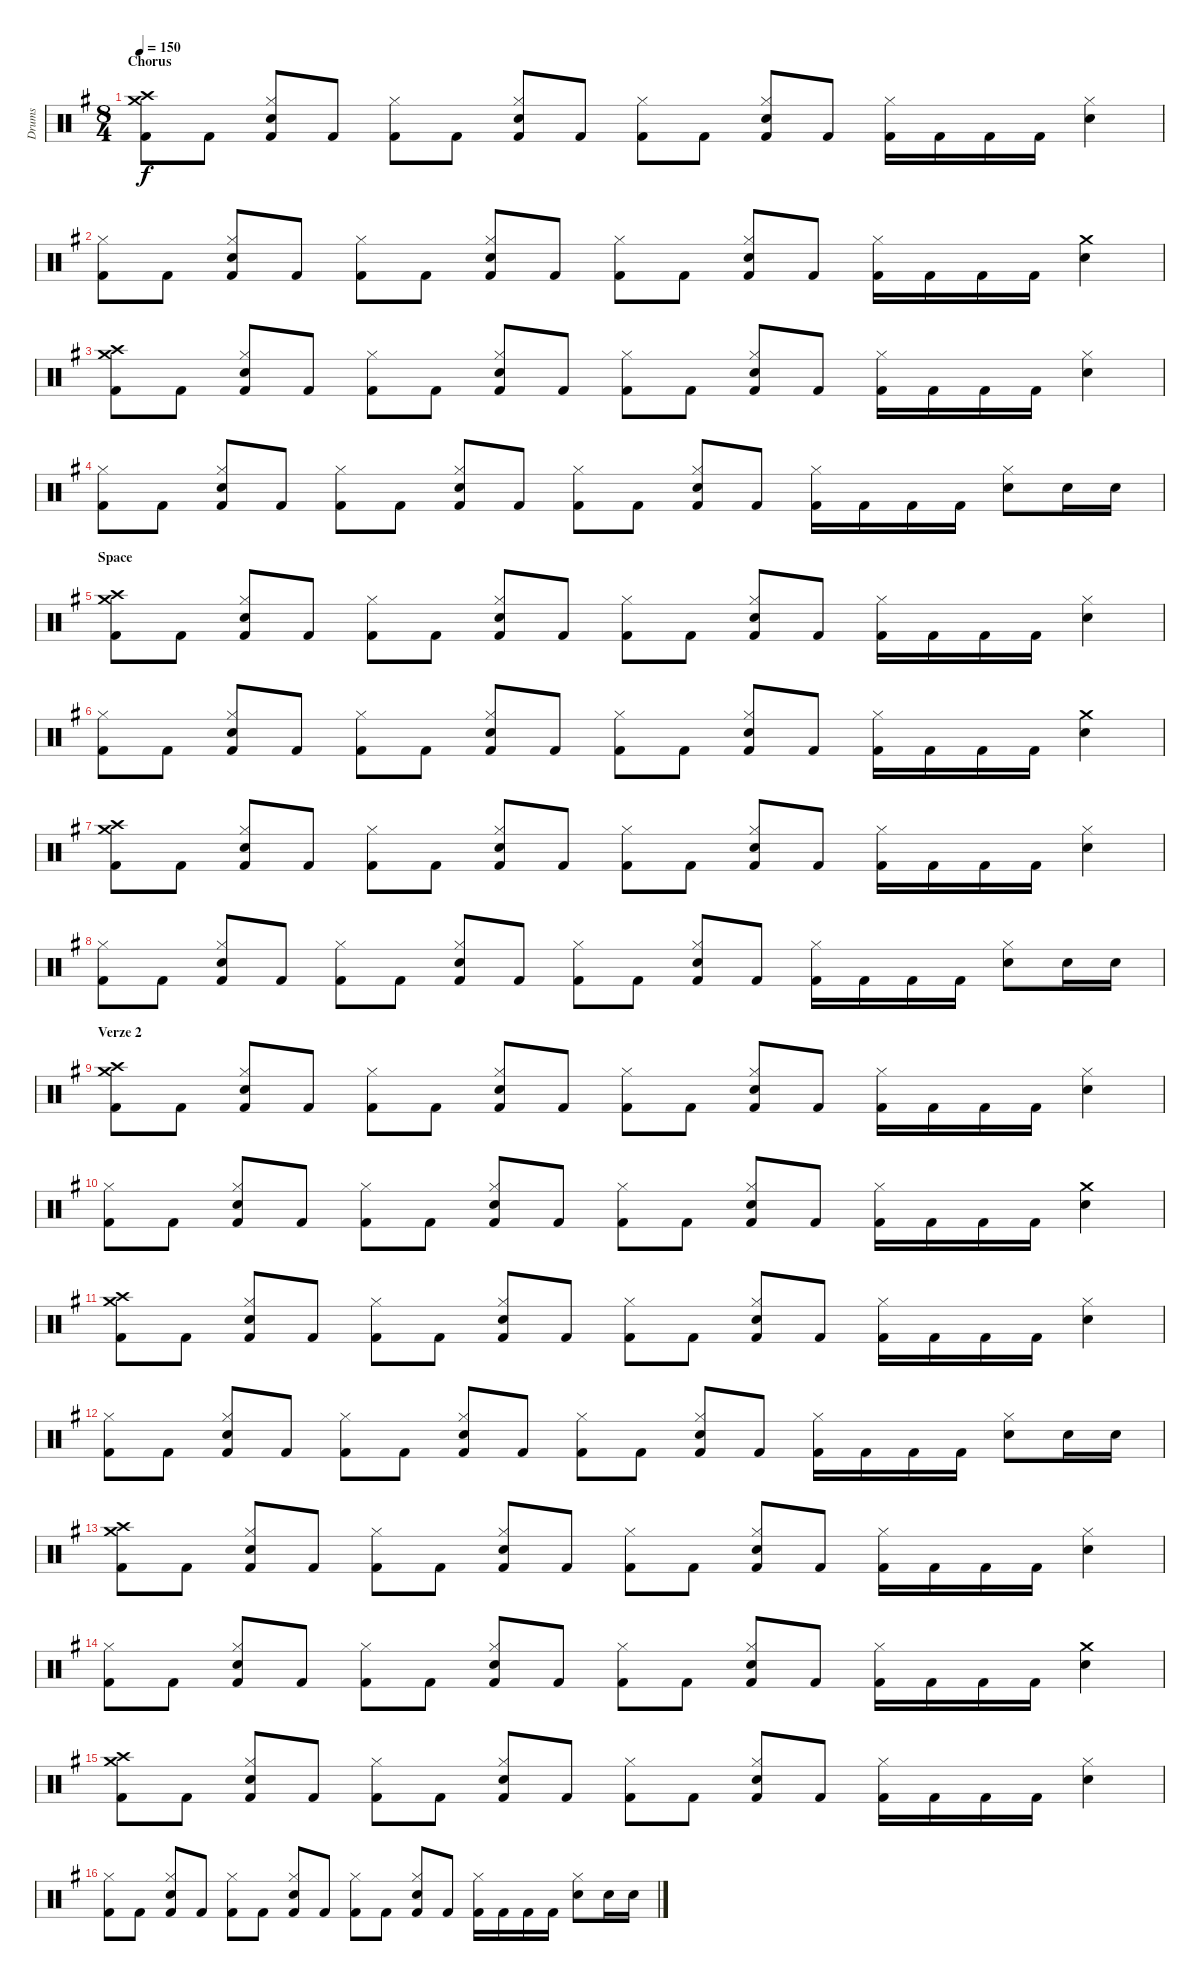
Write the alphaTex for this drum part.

\track ("Drums" "Drums") {instrument percussion}
\staff {score}
\articulation defaults
\ts (8 4)
\section ("" "Chorus")
\tempo 150
\clef neutral
\ks g
("Crash medium (hit)" "Crash high (hit)" "Kick (hit) 2").8{dy f} "Kick (hit) 2".8 ("Hi-Hat (closed)" "Snare (hit) 2" "Kick (hit) 2").8 "Kick (hit) 2".8 ("Hi-Hat (closed)" "Kick (hit) 2").8 "Kick (hit) 2".8 ("Hi-Hat (closed)" "Snare (hit) 2" "Kick (hit) 2").8 "Kick (hit) 2".8 ("Hi-Hat (closed)" "Kick (hit) 2").8 "Kick (hit) 2".8 ("Hi-Hat (closed)" "Snare (hit) 2" "Kick (hit) 2").8 "Kick (hit) 2".8 ("Hi-Hat (closed)" "Kick (hit) 2").16 "Kick (hit) 2".16 "Kick (hit) 2".16 "Kick (hit) 2".16 ("Hi-Hat (closed)" "Snare (hit) 2").4 |
("Hi-Hat (closed)" "Kick (hit) 2").8 "Kick (hit) 2".8 ("Hi-Hat (closed)" "Snare (hit) 2" "Kick (hit) 2").8 "Kick (hit) 2".8 ("Hi-Hat (closed)" "Kick (hit) 2").8 "Kick (hit) 2".8 ("Hi-Hat (closed)" "Snare (hit) 2" "Kick (hit) 2").8 "Kick (hit) 2".8 ("Hi-Hat (closed)" "Kick (hit) 2").8 "Kick (hit) 2".8 ("Hi-Hat (closed)" "Snare (hit) 2" "Kick (hit) 2").8 "Kick (hit) 2".8 ("Hi-Hat (closed)" "Kick (hit) 2").16 "Kick (hit) 2".16 "Kick (hit) 2".16 "Kick (hit) 2".16 ("Crash medium (hit)" "Snare (hit) 2").4 |
("Crash medium (hit)" "Crash high (hit)" "Kick (hit) 2").8 "Kick (hit) 2".8 ("Hi-Hat (closed)" "Snare (hit) 2" "Kick (hit) 2").8 "Kick (hit) 2".8 ("Hi-Hat (closed)" "Kick (hit) 2").8 "Kick (hit) 2".8 ("Hi-Hat (closed)" "Snare (hit) 2" "Kick (hit) 2").8 "Kick (hit) 2".8 ("Hi-Hat (closed)" "Kick (hit) 2").8 "Kick (hit) 2".8 ("Hi-Hat (closed)" "Snare (hit) 2" "Kick (hit) 2").8 "Kick (hit) 2".8 ("Hi-Hat (closed)" "Kick (hit) 2").16 "Kick (hit) 2".16 "Kick (hit) 2".16 "Kick (hit) 2".16 ("Hi-Hat (closed)" "Snare (hit) 2").4 |
("Hi-Hat (closed)" "Kick (hit) 2").8 "Kick (hit) 2".8 ("Hi-Hat (closed)" "Snare (hit) 2" "Kick (hit) 2").8 "Kick (hit) 2".8 ("Hi-Hat (closed)" "Kick (hit) 2").8 "Kick (hit) 2".8 ("Hi-Hat (closed)" "Snare (hit) 2" "Kick (hit) 2").8 "Kick (hit) 2".8 ("Hi-Hat (closed)" "Kick (hit) 2").8 "Kick (hit) 2".8 ("Hi-Hat (closed)" "Snare (hit) 2" "Kick (hit) 2").8 "Kick (hit) 2".8 ("Hi-Hat (closed)" "Kick (hit) 2").16 "Kick (hit) 2".16 "Kick (hit) 2".16 "Kick (hit) 2".16 ("Hi-Hat (closed)" "Snare (hit) 2").8 "Snare (hit) 2".16 "Snare (hit) 2".16 |
\section ("" "Space")
("Crash medium (hit)" "Crash high (hit)" "Kick (hit) 2").8 "Kick (hit) 2".8 ("Hi-Hat (closed)" "Snare (hit) 2" "Kick (hit) 2").8 "Kick (hit) 2".8 ("Hi-Hat (closed)" "Kick (hit) 2").8 "Kick (hit) 2".8 ("Hi-Hat (closed)" "Snare (hit) 2" "Kick (hit) 2").8 "Kick (hit) 2".8 ("Hi-Hat (closed)" "Kick (hit) 2").8 "Kick (hit) 2".8 ("Hi-Hat (closed)" "Snare (hit) 2" "Kick (hit) 2").8 "Kick (hit) 2".8 ("Hi-Hat (closed)" "Kick (hit) 2").16 "Kick (hit) 2".16 "Kick (hit) 2".16 "Kick (hit) 2".16 ("Hi-Hat (closed)" "Snare (hit) 2").4 |
("Hi-Hat (closed)" "Kick (hit) 2").8 "Kick (hit) 2".8 ("Hi-Hat (closed)" "Snare (hit) 2" "Kick (hit) 2").8 "Kick (hit) 2".8 ("Hi-Hat (closed)" "Kick (hit) 2").8 "Kick (hit) 2".8 ("Hi-Hat (closed)" "Snare (hit) 2" "Kick (hit) 2").8 "Kick (hit) 2".8 ("Hi-Hat (closed)" "Kick (hit) 2").8 "Kick (hit) 2".8 ("Hi-Hat (closed)" "Snare (hit) 2" "Kick (hit) 2").8 "Kick (hit) 2".8 ("Hi-Hat (closed)" "Kick (hit) 2").16 "Kick (hit) 2".16 "Kick (hit) 2".16 "Kick (hit) 2".16 ("Crash medium (hit)" "Snare (hit) 2").4 |
("Crash medium (hit)" "Crash high (hit)" "Kick (hit) 2").8 "Kick (hit) 2".8 ("Hi-Hat (closed)" "Snare (hit) 2" "Kick (hit) 2").8 "Kick (hit) 2".8 ("Hi-Hat (closed)" "Kick (hit) 2").8 "Kick (hit) 2".8 ("Hi-Hat (closed)" "Snare (hit) 2" "Kick (hit) 2").8 "Kick (hit) 2".8 ("Hi-Hat (closed)" "Kick (hit) 2").8 "Kick (hit) 2".8 ("Hi-Hat (closed)" "Snare (hit) 2" "Kick (hit) 2").8 "Kick (hit) 2".8 ("Hi-Hat (closed)" "Kick (hit) 2").16 "Kick (hit) 2".16 "Kick (hit) 2".16 "Kick (hit) 2".16 ("Hi-Hat (closed)" "Snare (hit) 2").4 |
("Hi-Hat (closed)" "Kick (hit) 2").8 "Kick (hit) 2".8 ("Hi-Hat (closed)" "Snare (hit) 2" "Kick (hit) 2").8 "Kick (hit) 2".8 ("Hi-Hat (closed)" "Kick (hit) 2").8 "Kick (hit) 2".8 ("Hi-Hat (closed)" "Snare (hit) 2" "Kick (hit) 2").8 "Kick (hit) 2".8 ("Hi-Hat (closed)" "Kick (hit) 2").8 "Kick (hit) 2".8 ("Hi-Hat (closed)" "Snare (hit) 2" "Kick (hit) 2").8 "Kick (hit) 2".8 ("Hi-Hat (closed)" "Kick (hit) 2").16 "Kick (hit) 2".16 "Kick (hit) 2".16 "Kick (hit) 2".16 ("Hi-Hat (closed)" "Snare (hit) 2").8 "Snare (hit) 2".16 "Snare (hit) 2".16 |
\section ("" "Verze 2")
("Crash medium (hit)" "Crash high (hit)" "Kick (hit) 2").8 "Kick (hit) 2".8 ("Hi-Hat (closed)" "Snare (hit) 2" "Kick (hit) 2").8 "Kick (hit) 2".8 ("Hi-Hat (closed)" "Kick (hit) 2").8 "Kick (hit) 2".8 ("Hi-Hat (closed)" "Snare (hit) 2" "Kick (hit) 2").8 "Kick (hit) 2".8 ("Hi-Hat (closed)" "Kick (hit) 2").8 "Kick (hit) 2".8 ("Hi-Hat (closed)" "Snare (hit) 2" "Kick (hit) 2").8 "Kick (hit) 2".8 ("Hi-Hat (closed)" "Kick (hit) 2").16 "Kick (hit) 2".16 "Kick (hit) 2".16 "Kick (hit) 2".16 ("Hi-Hat (closed)" "Snare (hit) 2").4 |
("Hi-Hat (closed)" "Kick (hit) 2").8 "Kick (hit) 2".8 ("Hi-Hat (closed)" "Snare (hit) 2" "Kick (hit) 2").8 "Kick (hit) 2".8 ("Hi-Hat (closed)" "Kick (hit) 2").8 "Kick (hit) 2".8 ("Hi-Hat (closed)" "Snare (hit) 2" "Kick (hit) 2").8 "Kick (hit) 2".8 ("Hi-Hat (closed)" "Kick (hit) 2").8 "Kick (hit) 2".8 ("Hi-Hat (closed)" "Snare (hit) 2" "Kick (hit) 2").8 "Kick (hit) 2".8 ("Hi-Hat (closed)" "Kick (hit) 2").16 "Kick (hit) 2".16 "Kick (hit) 2".16 "Kick (hit) 2".16 ("Crash medium (hit)" "Snare (hit) 2").4 |
("Crash medium (hit)" "Crash high (hit)" "Kick (hit) 2").8 "Kick (hit) 2".8 ("Hi-Hat (closed)" "Snare (hit) 2" "Kick (hit) 2").8 "Kick (hit) 2".8 ("Hi-Hat (closed)" "Kick (hit) 2").8 "Kick (hit) 2".8 ("Hi-Hat (closed)" "Snare (hit) 2" "Kick (hit) 2").8 "Kick (hit) 2".8 ("Hi-Hat (closed)" "Kick (hit) 2").8 "Kick (hit) 2".8 ("Hi-Hat (closed)" "Snare (hit) 2" "Kick (hit) 2").8 "Kick (hit) 2".8 ("Hi-Hat (closed)" "Kick (hit) 2").16 "Kick (hit) 2".16 "Kick (hit) 2".16 "Kick (hit) 2".16 ("Hi-Hat (closed)" "Snare (hit) 2").4 |
("Hi-Hat (closed)" "Kick (hit) 2").8 "Kick (hit) 2".8 ("Hi-Hat (closed)" "Snare (hit) 2" "Kick (hit) 2").8 "Kick (hit) 2".8 ("Hi-Hat (closed)" "Kick (hit) 2").8 "Kick (hit) 2".8 ("Hi-Hat (closed)" "Snare (hit) 2" "Kick (hit) 2").8 "Kick (hit) 2".8 ("Hi-Hat (closed)" "Kick (hit) 2").8 "Kick (hit) 2".8 ("Hi-Hat (closed)" "Snare (hit) 2" "Kick (hit) 2").8 "Kick (hit) 2".8 ("Hi-Hat (closed)" "Kick (hit) 2").16 "Kick (hit) 2".16 "Kick (hit) 2".16 "Kick (hit) 2".16 ("Hi-Hat (closed)" "Snare (hit) 2").8 "Snare (hit) 2".16 "Snare (hit) 2".16 |
("Crash medium (hit)" "Crash high (hit)" "Kick (hit) 2").8 "Kick (hit) 2".8 ("Hi-Hat (closed)" "Snare (hit) 2" "Kick (hit) 2").8 "Kick (hit) 2".8 ("Hi-Hat (closed)" "Kick (hit) 2").8 "Kick (hit) 2".8 ("Hi-Hat (closed)" "Snare (hit) 2" "Kick (hit) 2").8 "Kick (hit) 2".8 ("Hi-Hat (closed)" "Kick (hit) 2").8 "Kick (hit) 2".8 ("Hi-Hat (closed)" "Snare (hit) 2" "Kick (hit) 2").8 "Kick (hit) 2".8 ("Hi-Hat (closed)" "Kick (hit) 2").16 "Kick (hit) 2".16 "Kick (hit) 2".16 "Kick (hit) 2".16 ("Hi-Hat (closed)" "Snare (hit) 2").4 |
("Hi-Hat (closed)" "Kick (hit) 2").8 "Kick (hit) 2".8 ("Hi-Hat (closed)" "Snare (hit) 2" "Kick (hit) 2").8 "Kick (hit) 2".8 ("Hi-Hat (closed)" "Kick (hit) 2").8 "Kick (hit) 2".8 ("Hi-Hat (closed)" "Snare (hit) 2" "Kick (hit) 2").8 "Kick (hit) 2".8 ("Hi-Hat (closed)" "Kick (hit) 2").8 "Kick (hit) 2".8 ("Hi-Hat (closed)" "Snare (hit) 2" "Kick (hit) 2").8 "Kick (hit) 2".8 ("Hi-Hat (closed)" "Kick (hit) 2").16 "Kick (hit) 2".16 "Kick (hit) 2".16 "Kick (hit) 2".16 ("Crash medium (hit)" "Snare (hit) 2").4 |
("Crash medium (hit)" "Crash high (hit)" "Kick (hit) 2").8 "Kick (hit) 2".8 ("Hi-Hat (closed)" "Snare (hit) 2" "Kick (hit) 2").8 "Kick (hit) 2".8 ("Hi-Hat (closed)" "Kick (hit) 2").8 "Kick (hit) 2".8 ("Hi-Hat (closed)" "Snare (hit) 2" "Kick (hit) 2").8 "Kick (hit) 2".8 ("Hi-Hat (closed)" "Kick (hit) 2").8 "Kick (hit) 2".8 ("Hi-Hat (closed)" "Snare (hit) 2" "Kick (hit) 2").8 "Kick (hit) 2".8 ("Hi-Hat (closed)" "Kick (hit) 2").16 "Kick (hit) 2".16 "Kick (hit) 2".16 "Kick (hit) 2".16 ("Hi-Hat (closed)" "Snare (hit) 2").4 |
("Hi-Hat (closed)" "Kick (hit) 2").8 "Kick (hit) 2".8 ("Hi-Hat (closed)" "Snare (hit) 2" "Kick (hit) 2").8 "Kick (hit) 2".8 ("Hi-Hat (closed)" "Kick (hit) 2").8 "Kick (hit) 2".8 ("Hi-Hat (closed)" "Snare (hit) 2" "Kick (hit) 2").8 "Kick (hit) 2".8 ("Hi-Hat (closed)" "Kick (hit) 2").8 "Kick (hit) 2".8 ("Hi-Hat (closed)" "Snare (hit) 2" "Kick (hit) 2").8 "Kick (hit) 2".8 ("Hi-Hat (closed)" "Kick (hit) 2").16 "Kick (hit) 2".16 "Kick (hit) 2".16 "Kick (hit) 2".16 ("Hi-Hat (closed)" "Snare (hit) 2").8 "Snare (hit) 2".16 "Snare (hit) 2".16
